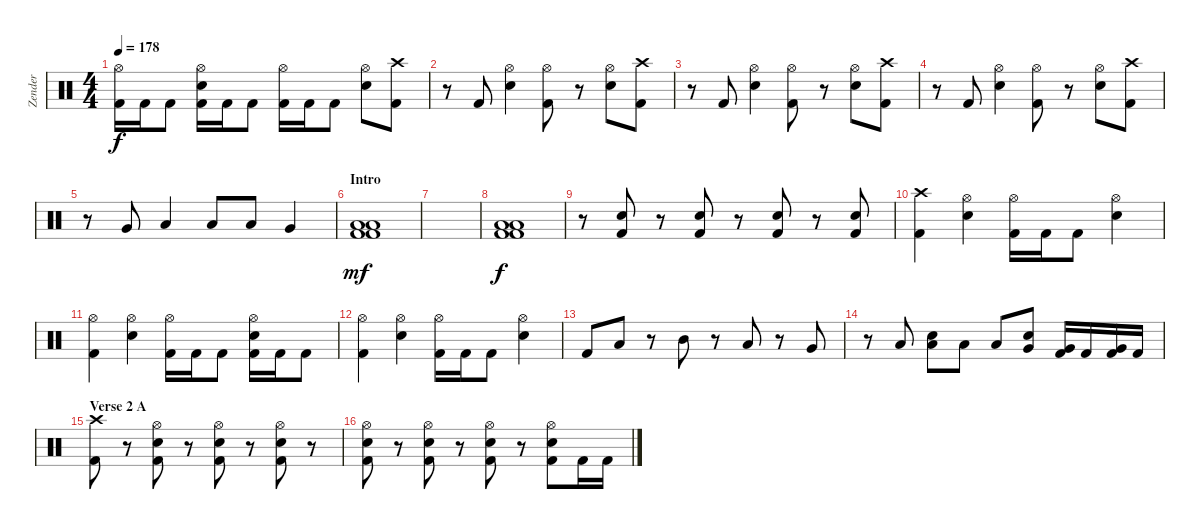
\track ("Zender" "Zender") {instrument percussion}
\staff {score}
\articulation defaults
\ts (4 4)
\tempo 178
\clef neutral
\ks c
("Hi-Hat (open)" "Kick (hit) 2").16{dy f} "Kick (hit) 2".16 "Kick (hit) 2".8 ("Hi-Hat (open)" "Electric Snare (hit)" "Kick (hit) 2").16 "Kick (hit) 2".16 "Kick (hit) 2".8 ("Hi-Hat (open)" "Kick (hit) 2").16 "Kick (hit) 2".16 "Kick (hit) 2".8 ("Hi-Hat (open)" "Electric Snare (hit)").8 ("Crash high (hit)" "Kick (hit) 2").8 |
r.8 "Kick (hit) 2".8 ("Hi-Hat (open)" "Electric Snare (hit)").4 ("Hi-Hat (open)" "Kick (hit) 2").8 r.8 ("Hi-Hat (open)" "Electric Snare (hit)").8 ("Crash high (hit)" "Kick (hit) 2").8 |
r.8 "Kick (hit) 2".8 ("Hi-Hat (open)" "Electric Snare (hit)").4 ("Hi-Hat (open)" "Kick (hit) 2").8 r.8 ("Hi-Hat (open)" "Electric Snare (hit)").8 ("Crash high (hit)" "Kick (hit) 2").8 |
r.8 "Kick (hit) 2".8 ("Hi-Hat (open)" "Electric Snare (hit)").4 ("Hi-Hat (open)" "Kick (hit) 2").8 r.8 ("Hi-Hat (open)" "Electric Snare (hit)").8 ("Crash high (hit)" "Kick (hit) 2").8 |
r.8 "Very Low Tom (hit)".8 "Low Floor Tom (hit)".4 "Low Floor Tom (hit)".8 "Low Tom (hit)".8 "Very Low Tom (hit)".4 |
\section ("" "Intro")
("Low Floor Tom (hit)" "Low Floor Tom (hit)" "Kick (hit) 2" "Kick (hit) 2").1{dy mf} |
|
("Low Floor Tom (hit)" "Low Floor Tom (hit)" "Kick (hit) 2" "Kick (hit) 2").1{dy f} |
r.8 ("Electric Snare (hit)" "Kick (hit) 2").8 r.8 ("Electric Snare (hit)" "Kick (hit) 2").8 r.8 ("Electric Snare (hit)" "Kick (hit) 2").8 r.8 ("Electric Snare (hit)" "Kick (hit) 2").8 |
("Crash high (hit)" "Kick (hit) 2").4 ("Hi-Hat (open)" "Electric Snare (hit)").4 ("Hi-Hat (open)" "Kick (hit) 2").16 "Kick (hit) 2".16 "Kick (hit) 2".8 ("Hi-Hat (open)" "Electric Snare (hit)").4 |
("Hi-Hat (open)" "Kick (hit) 2").4 ("Hi-Hat (open)" "Electric Snare (hit)").4 ("Hi-Hat (open)" "Kick (hit) 2").16 "Kick (hit) 2".16 "Kick (hit) 2".8 ("Hi-Hat (open)" "Electric Snare (hit)" "Kick (hit) 2").16 "Kick (hit) 2".16 "Kick (hit) 2".8 |
("Hi-Hat (open)" "Kick (hit) 2").4 ("Hi-Hat (open)" "Electric Snare (hit)").4 ("Hi-Hat (open)" "Kick (hit) 2").16 "Kick (hit) 2".16 "Kick (hit) 2".8 ("Hi-Hat (open)" "Electric Snare (hit)").4 |
"Kick (hit) 2".8 "Low Tom (hit)".8 r.8 "Mid Tom (hit)".8 r.8 "Low Tom (hit)".8 r.8 "Very Low Tom (hit)".8 |
r.8 "Low Floor Tom (hit)".8 ("Low Floor Tom (hit)" "Electric Snare (hit)").8 "Low Floor Tom (hit)".8 "Low Floor Tom (hit)".8 ("Very Low Tom (hit)" "Electric Snare (hit)").8 ("Very Low Tom (hit)" "Kick (hit) 2").16 "Kick (hit) 2".16 ("Very Low Tom (hit)" "Kick (hit) 2").16 "Kick (hit) 2".16 |
\section ("" "Verse 2 A")
("Crash high (hit)" "Kick (hit) 2").8 r.8 ("Electric Snare (hit)" "Hi-Hat (open)" "Kick (hit) 2").8 r.8 ("Electric Snare (hit)" "Hi-Hat (open)" "Kick (hit) 2").8 r.8 ("Electric Snare (hit)" "Hi-Hat (open)" "Kick (hit) 2").8 r.8 |
("Electric Snare (hit)" "Hi-Hat (open)" "Kick (hit) 2").8 r.8 ("Electric Snare (hit)" "Hi-Hat (open)" "Kick (hit) 2").8 r.8 ("Electric Snare (hit)" "Hi-Hat (open)" "Kick (hit) 2").8 r.8 ("Electric Snare (hit)" "Hi-Hat (open)" "Kick (hit) 2").8 "Kick (hit) 2".16 "Kick (hit) 2".16
